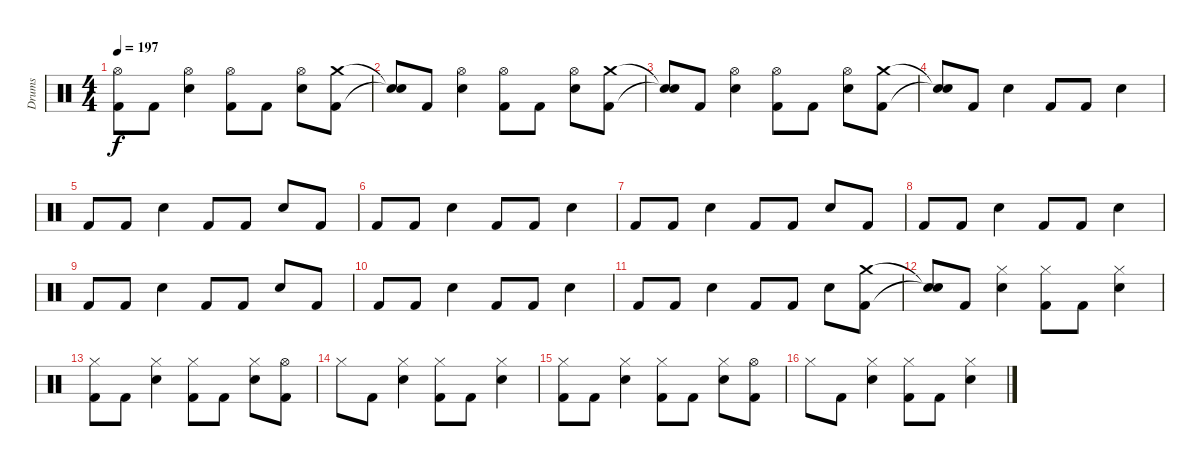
\track ("Drums" "Drums") {instrument percussion}
\staff {score}
\articulation defaults
\ts (4 4)
\tempo 197
\clef neutral
\ks c
("Hi-Hat (open)" "Kick (hit) 2").8{dy f} "Kick (hit) 2".8 ("Hi-Hat (open)" "Electric Snare (hit)").4 ("Hi-Hat (open)" "Kick (hit) 2").8 "Kick (hit) 2".8 ("Hi-Hat (open)" "Electric Snare (hit)").8 ("Crash medium (hit)" "Kick (hit) 2").8 |
("Snare (hit)"{t} "Snare (hit)"{t}).8 "Kick (hit) 2".8 ("Hi-Hat (open)" "Electric Snare (hit)").4 ("Hi-Hat (open)" "Kick (hit) 2").8 "Kick (hit) 2".8 ("Hi-Hat (open)" "Electric Snare (hit)").8 ("Crash medium (hit)" "Kick (hit) 2").8 |
("Snare (hit)"{t} "Snare (hit)"{t}).8 "Kick (hit) 2".8 ("Hi-Hat (open)" "Electric Snare (hit)").4 ("Hi-Hat (open)" "Kick (hit) 2").8 "Kick (hit) 2".8 ("Hi-Hat (open)" "Electric Snare (hit)").8 ("Crash medium (hit)" "Kick (hit) 2").8 |
\section ("" "")
("Snare (hit)"{t} "Snare (hit)"{t}).8 "Kick (hit) 2".8 "Electric Snare (hit)".4 "Kick (hit) 2".8 "Kick (hit) 2".8 "Electric Snare (hit)".4 |
"Kick (hit) 2".8 "Kick (hit) 2".8 "Electric Snare (hit)".4 "Kick (hit) 2".8 "Kick (hit) 2".8 "Electric Snare (hit)".8 "Kick (hit) 2".8 |
"Kick (hit) 2".8 "Kick (hit) 2".8 "Electric Snare (hit)".4 "Kick (hit) 2".8 "Kick (hit) 2".8 "Electric Snare (hit)".4 |
"Kick (hit) 2".8 "Kick (hit) 2".8 "Electric Snare (hit)".4 "Kick (hit) 2".8 "Kick (hit) 2".8 "Electric Snare (hit)".8 "Kick (hit) 2".8 |
"Kick (hit) 2".8 "Kick (hit) 2".8 "Electric Snare (hit)".4 "Kick (hit) 2".8 "Kick (hit) 2".8 "Electric Snare (hit)".4 |
"Kick (hit) 2".8 "Kick (hit) 2".8 "Electric Snare (hit)".4 "Kick (hit) 2".8 "Kick (hit) 2".8 "Electric Snare (hit)".8 "Kick (hit) 2".8 |
"Kick (hit) 2".8 "Kick (hit) 2".8 "Electric Snare (hit)".4 "Kick (hit) 2".8 "Kick (hit) 2".8 "Electric Snare (hit)".4 |
"Kick (hit) 2".8 "Kick (hit) 2".8 "Electric Snare (hit)".4 "Kick (hit) 2".8 "Kick (hit) 2".8 "Electric Snare (hit)".8 ("Crash medium (hit)" "Kick (hit) 2").8 |
\section ("" "")
("Snare (hit)"{t} "Snare (hit)"{t}).8 "Kick (hit) 2".8 ("Hi-Hat (closed)" "Electric Snare (hit)").4 ("Hi-Hat (closed)" "Kick (hit) 2").8 "Kick (hit) 2".8 ("Hi-Hat (closed)" "Electric Snare (hit)").4 |
("Hi-Hat (closed)" "Kick (hit) 2").8 "Kick (hit) 2".8 ("Hi-Hat (closed)" "Electric Snare (hit)").4 ("Hi-Hat (closed)" "Kick (hit) 2").8 "Kick (hit) 2".8 ("Hi-Hat (closed)" "Electric Snare (hit)").8 ("Hi-Hat (open)" "Kick (hit) 2").8 |
"Hi-Hat (closed)".8 "Kick (hit) 2".8 ("Hi-Hat (closed)" "Electric Snare (hit)").4 ("Hi-Hat (closed)" "Kick (hit) 2").8 "Kick (hit) 2".8 ("Hi-Hat (closed)" "Electric Snare (hit)").4 |
("Hi-Hat (closed)" "Kick (hit) 2").8 "Kick (hit) 2".8 ("Hi-Hat (closed)" "Electric Snare (hit)").4 ("Hi-Hat (closed)" "Kick (hit) 2").8 "Kick (hit) 2".8 ("Hi-Hat (closed)" "Electric Snare (hit)").8 ("Hi-Hat (open)" "Kick (hit) 2").8 |
"Hi-Hat (closed)".8 "Kick (hit) 2".8 ("Hi-Hat (closed)" "Electric Snare (hit)").4 ("Hi-Hat (closed)" "Kick (hit) 2").8 "Kick (hit) 2".8 ("Hi-Hat (closed)" "Electric Snare (hit)").4
